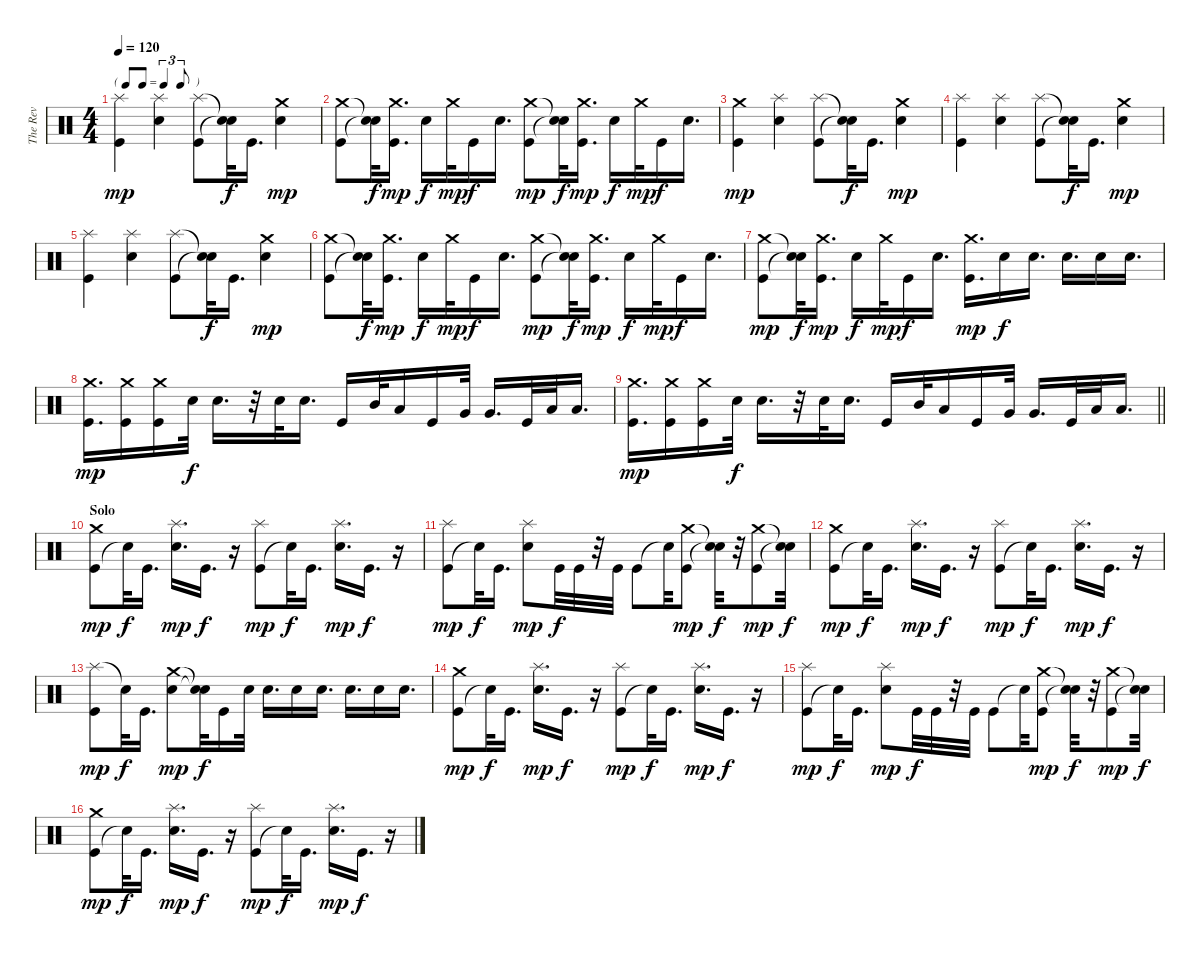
\track ("The Rev" "The Rev") {instrument percussion}
\staff {score}
\articulation defaults
\ts (4 4)
\tf triplet8th
\tempo 120
\clef neutral
\ks c
("Kick (hit)" "Splash (hit)").4{dy mp} ("Electric Snare (hit)" "Splash (hit)").4 ("Kick (hit)" "Splash (hit)").8 ("Snare (hit)"{t} "Snare (hit)"{t}).32{dy f} "Kick (hit)".16{d} ("Electric Snare (hit)" "Crash medium (hit)").4{dy mp} |
("Crash medium (hit)" "Kick (hit)").8 ("Snare (hit)"{t} "Snare (hit)"{t}).32{dy f} ("Crash medium (hit)" "Kick (hit)").16{d dy mp} "Electric Snare (hit)".16{dy f} "Crash medium (hit)".32{dy mp} "Kick (hit)".16{dy f} "Electric Snare (hit)".16{d} ("Crash medium (hit)" "Kick (hit)").8{dy mp} ("Snare (hit)"{t} "Snare (hit)"{t}).32{dy f} ("Crash medium (hit)" "Kick (hit)").16{d dy mp} "Electric Snare (hit)".16{dy f} "Crash medium (hit)".32{dy mp} "Kick (hit)".16{dy f} "Electric Snare (hit)".16{d} |
("Kick (hit)" "Crash medium (hit)").4{dy mp} ("Electric Snare (hit)" "Splash (hit)").4 ("Kick (hit)" "Splash (hit)").8 ("Snare (hit)"{t} "Snare (hit)"{t}).32{dy f} "Kick (hit)".16{d} ("Electric Snare (hit)" "Crash medium (hit)").4{dy mp} |
("Kick (hit)" "Splash (hit)").4 ("Electric Snare (hit)" "Splash (hit)").4 ("Kick (hit)" "Splash (hit)").8 ("Snare (hit)"{t} "Snare (hit)"{t}).32{dy f} "Kick (hit)".16{d} ("Electric Snare (hit)" "Crash medium (hit)").4{dy mp} |
("Kick (hit)" "Splash (hit)").4 ("Electric Snare (hit)" "Splash (hit)").4 ("Kick (hit)" "Splash (hit)").8 ("Snare (hit)"{t} "Snare (hit)"{t}).32{dy f} "Kick (hit)".16{d} ("Electric Snare (hit)" "Crash medium (hit)").4{dy mp} |
("Crash medium (hit)" "Kick (hit)").8 ("Snare (hit)"{t} "Snare (hit)"{t}).32{dy f} ("Crash medium (hit)" "Kick (hit)").16{d dy mp} "Electric Snare (hit)".16{dy f} "Crash medium (hit)".32{dy mp} "Kick (hit)".16{dy f} "Electric Snare (hit)".16{d} ("Kick (hit)" "Crash medium (hit)").8{dy mp} ("Snare (hit)"{t} "Snare (hit)"{t}).32{dy f} ("Crash medium (hit)" "Kick (hit)").16{d dy mp} "Electric Snare (hit)".16{dy f} "Crash medium (hit)".32{dy mp} "Kick (hit)".16{dy f} "Electric Snare (hit)".16{d} |
("Crash medium (hit)" "Kick (hit)").8{dy mp} ("Snare (hit)"{t} "Snare (hit)"{t}).32{dy f} ("Crash medium (hit)" "Kick (hit)").16{d dy mp} "Electric Snare (hit)".16{dy f} "Crash medium (hit)".32{dy mp} "Kick (hit)".16{dy f} "Electric Snare (hit)".16{d} ("Kick (hit)" "Crash medium (hit)").16{d dy mp} "Electric Snare (hit)".16{dy f} "Electric Snare (hit)".16{d} "Electric Snare (hit)".16{d} "Electric Snare (hit)".16 "Electric Snare (hit)".16{d} |
("Kick (hit)" "Crash medium (hit)").16{d dy mp} ("Kick (hit)" "Crash medium (hit)").16 ("Kick (hit)" "Crash medium (hit)").16 "Snare (hit) 2".32{dy f} "Electric Snare (hit)".16{d} r.32 "Snare (hit) 2".32 "Electric Snare (hit)".16{d} "Kick (hit)".16 "Mid Tom (hit)".32 "Low Tom (hit)".16 "Kick (hit)".16 "Very Low Tom (hit)".32 "Very Low Tom (hit)".16{d} "Kick (hit)".32 "Low Floor Tom (hit)".32 "Low Floor Tom (hit)".16{d} |
\barLineRight lightlight
("Kick (hit)" "Crash medium (hit)").16{d dy mp} ("Kick (hit)" "Crash medium (hit)").16 ("Kick (hit)" "Crash medium (hit)").16 "Snare (hit) 2".32{dy f} "Electric Snare (hit)".16{d} r.32 "Snare (hit) 2".32 "Electric Snare (hit)".16{d} "Kick (hit)".16 "Mid Tom (hit)".32 "Low Tom (hit)".16 "Kick (hit)".16 "Very Low Tom (hit)".32 "Very Low Tom (hit)".16{d} "Kick (hit)".32 "Low Floor Tom (hit)".32 "Low Floor Tom (hit)".16{d} |
\section ("" "Solo")
("Kick (hit)" "Crash medium (hit)").8{dy mp} "Snare (hit)"{t}.32{dy f} "Kick (hit)".16{d} ("Electric Snare (hit)" "Splash (hit)").16{d dy mp} "Kick (hit)".16{d dy f} r.16 ("Kick (hit)" "Splash (hit)").8{dy mp} "Snare (hit)"{t}.32{dy f} "Kick (hit)".16{d} ("Electric Snare (hit)" "Splash (hit)").16{d dy mp} "Kick (hit)".16{d dy f} r.16 |
("Kick (hit)" "Splash (hit)").8{dy mp} "Snare (hit)"{t}.32{dy f} "Kick (hit)".16{d} ("Electric Snare (hit)" "Splash (hit)").8{dy mp} "Kick (hit)".32{dy f} "Kick (hit)".32 r.32 "Kick (hit)".32 "Kick (hit)".8 "Snare (hit)"{t}.32 ("Kick (hit)" "Crash medium (hit)").8{dy mp} ("Snare (hit)"{t} "Snare (hit)"{t}).32{dy f} r.32 ("Crash medium (hit)" "Kick (hit)").8{dy mp} ("Snare (hit)"{t} "Snare (hit)"{t}).32{dy f} |
("Kick (hit)" "Crash medium (hit)").8{dy mp} "Snare (hit)"{t}.32{dy f} "Kick (hit)".16{d} ("Electric Snare (hit)" "Splash (hit)").16{d dy mp} "Kick (hit)".16{d dy f} r.16 ("Kick (hit)" "Splash (hit)").8{dy mp} "Snare (hit)"{t}.32{dy f} "Kick (hit)".16{d} ("Electric Snare (hit)" "Splash (hit)").16{d dy mp} "Kick (hit)".16{d dy f} r.16 |
("Splash (hit)" "Kick (hit)").8{dy mp} "Snare (hit)"{t}.32{dy f} "Kick (hit)".16{d} ("Electric Snare (hit)" "Crash medium (hit)").8{dy mp} ("Snare (hit)"{t} "Snare (hit)"{t}).32{dy f} "Kick (hit)".16 "Electric Snare (hit)".32 "Electric Snare (hit)".16{d} "Electric Snare (hit)".16 "Electric Snare (hit)".16{d} "Electric Snare (hit)".16{d} "Electric Snare (hit)".16 "Electric Snare (hit)".16{d} |
("Kick (hit)" "Crash medium (hit)").8{dy mp} "Snare (hit)"{t}.32{dy f} "Kick (hit)".16{d} ("Electric Snare (hit)" "Splash (hit)").16{d dy mp} "Kick (hit)".16{d dy f} r.16 ("Kick (hit)" "Splash (hit)").8{dy mp} "Snare (hit)"{t}.32{dy f} "Kick (hit)".16{d} ("Electric Snare (hit)" "Splash (hit)").16{d dy mp} "Kick (hit)".16{d dy f} r.16 |
("Kick (hit)" "Splash (hit)").8{dy mp} "Snare (hit)"{t}.32{dy f} "Kick (hit)".16{d} ("Electric Snare (hit)" "Splash (hit)").8{dy mp} "Kick (hit)".32{dy f} "Kick (hit)".32 r.32 "Kick (hit)".32 "Kick (hit)".8 "Snare (hit)"{t}.32 ("Kick (hit)" "Crash medium (hit)").8{dy mp} ("Snare (hit)"{t} "Snare (hit)"{t}).32{dy f} r.32 ("Crash medium (hit)" "Kick (hit)").8{dy mp} ("Snare (hit)"{t} "Snare (hit)"{t}).32{dy f} |
("Kick (hit)" "Crash medium (hit)").8{dy mp} "Snare (hit)"{t}.32{dy f} "Kick (hit)".16{d} ("Electric Snare (hit)" "Splash (hit)").16{d dy mp} "Kick (hit)".16{d dy f} r.16 ("Kick (hit)" "Splash (hit)").8{dy mp} "Snare (hit)"{t}.32{dy f} "Kick (hit)".16{d} ("Electric Snare (hit)" "Splash (hit)").16{d dy mp} "Kick (hit)".16{d dy f} r.16
